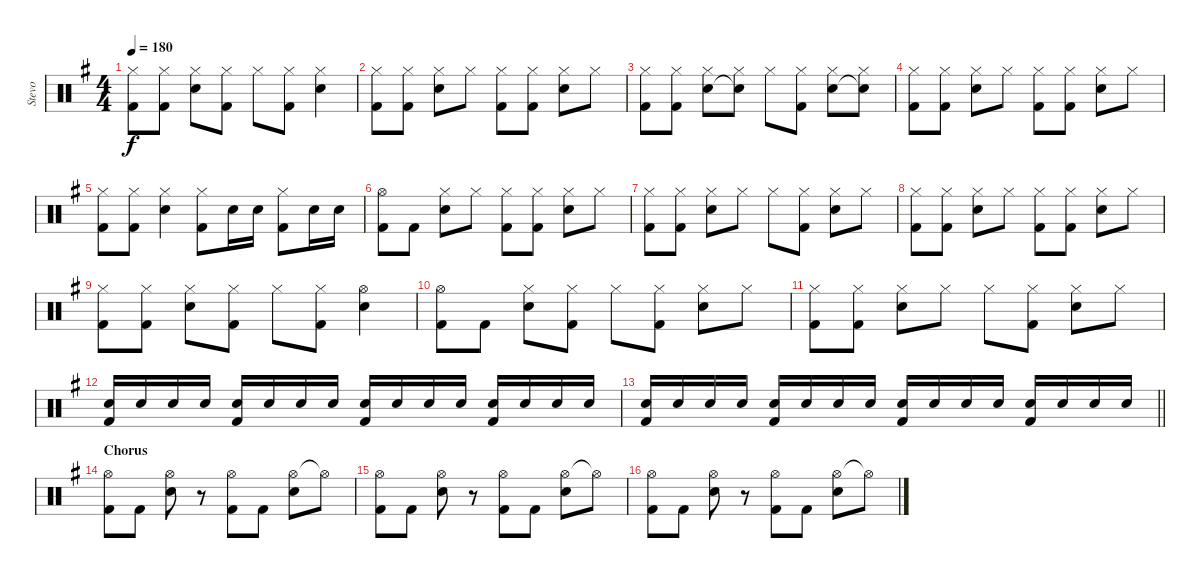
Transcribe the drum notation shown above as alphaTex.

\track ("Stevo" "Stevo") {instrument percussion}
\staff {score}
\articulation defaults
\ts (4 4)
\tempo 180
\clef neutral
\ks g
("Hi-Hat (closed)" "Kick (hit) 2").8{dy f} ("Hi-Hat (closed)" "Kick (hit) 2").8 ("Hi-Hat (closed)" "Snare (hit) 2").8 ("Hi-Hat (closed)" "Kick (hit) 2").8 "Hi-Hat (closed)".8 ("Hi-Hat (closed)" "Kick (hit) 2").8 ("Hi-Hat (closed)" "Snare (hit) 2").4 |
("Hi-Hat (closed)" "Kick (hit) 2").8 ("Hi-Hat (closed)" "Kick (hit) 2").8 ("Hi-Hat (closed)" "Snare (hit) 2").8 "Hi-Hat (closed)".8 ("Hi-Hat (closed)" "Kick (hit) 2").8 ("Hi-Hat (closed)" "Kick (hit) 2").8 ("Hi-Hat (closed)" "Snare (hit) 2").8 "Hi-Hat (closed)".8 |
("Hi-Hat (closed)" "Kick (hit) 2").8 ("Hi-Hat (closed)" "Kick (hit) 2").8 ("Hi-Hat (closed)" "Snare (hit) 2").8 ("Hi-Hat (closed)" "Snare (hit) 2"{t}).8 "Hi-Hat (closed)".8 ("Hi-Hat (closed)" "Kick (hit) 2").8 ("Hi-Hat (closed)" "Snare (hit) 2").8 ("Hi-Hat (closed)" "Snare (hit) 2"{t}).8 |
("Hi-Hat (closed)" "Kick (hit) 2").8 ("Hi-Hat (closed)" "Kick (hit) 2").8 ("Hi-Hat (closed)" "Snare (hit) 2").8 "Hi-Hat (closed)".8 ("Hi-Hat (closed)" "Kick (hit) 2").8 ("Hi-Hat (closed)" "Kick (hit) 2").8 ("Hi-Hat (closed)" "Snare (hit) 2").8 "Hi-Hat (closed)".8 |
("Hi-Hat (closed)" "Kick (hit) 2").8 ("Hi-Hat (closed)" "Kick (hit) 2").8 ("Hi-Hat (closed)" "Snare (hit) 2").4 ("Hi-Hat (closed)" "Kick (hit) 2").8 "Snare (hit) 2".16 "Snare (hit) 2".16 ("Hi-Hat (closed)" "Kick (hit) 2").8 "Snare (hit) 2".16 "Snare (hit) 2".16 |
("Hi-Hat (open)" "Kick (hit) 2").8 "Kick (hit) 2".8 ("Hi-Hat (closed)" "Snare (hit) 2").8 "Hi-Hat (closed)".8 ("Hi-Hat (closed)" "Kick (hit) 2").8 ("Hi-Hat (closed)" "Kick (hit) 2").8 ("Hi-Hat (closed)" "Snare (hit) 2").8 "Hi-Hat (closed)".8 |
("Hi-Hat (closed)" "Kick (hit) 2").8 ("Hi-Hat (closed)" "Kick (hit) 2").8 ("Hi-Hat (closed)" "Snare (hit) 2").8 "Hi-Hat (closed)".8 "Hi-Hat (closed)".8 ("Hi-Hat (closed)" "Kick (hit) 2").8 ("Hi-Hat (closed)" "Snare (hit) 2").8 "Hi-Hat (closed)".8 |
("Hi-Hat (closed)" "Kick (hit) 2").8 ("Hi-Hat (closed)" "Kick (hit) 2").8 ("Hi-Hat (closed)" "Snare (hit) 2").8 "Hi-Hat (closed)".8 ("Hi-Hat (closed)" "Kick (hit) 2").8 ("Hi-Hat (closed)" "Kick (hit) 2").8 ("Hi-Hat (closed)" "Snare (hit) 2").8 "Hi-Hat (closed)".8 |
("Hi-Hat (closed)" "Kick (hit) 2").8 ("Hi-Hat (closed)" "Kick (hit) 2").8 ("Hi-Hat (closed)" "Snare (hit) 2").8 ("Hi-Hat (closed)" "Kick (hit) 2").8 "Hi-Hat (closed)".8 ("Hi-Hat (closed)" "Kick (hit) 2").8 ("Hi-Hat (open)" "Snare (hit) 2").4 |
("Hi-Hat (open)" "Kick (hit) 2").8 "Kick (hit) 2".8 ("Hi-Hat (closed)" "Snare (hit) 2").8 ("Hi-Hat (closed)" "Kick (hit) 2").8 "Hi-Hat (closed)".8 ("Hi-Hat (closed)" "Kick (hit) 2").8 ("Hi-Hat (closed)" "Snare (hit) 2").8 "Hi-Hat (closed)".8 |
("Hi-Hat (closed)" "Kick (hit) 2").8 ("Hi-Hat (closed)" "Kick (hit) 2").8 ("Hi-Hat (closed)" "Snare (hit) 2").8 "Hi-Hat (closed)".8 "Hi-Hat (closed)".8 ("Hi-Hat (closed)" "Kick (hit) 2").8 ("Hi-Hat (closed)" "Snare (hit) 2").8 "Hi-Hat (closed)".8 |
("Snare (hit) 2" "Kick (hit) 2").16 "Snare (hit) 2".16 "Snare (hit) 2".16 "Snare (hit) 2".16 ("Snare (hit) 2" "Kick (hit) 2").16 "Snare (hit) 2".16 "Snare (hit) 2".16 "Snare (hit) 2".16 ("Snare (hit) 2" "Kick (hit) 2").16 "Snare (hit) 2".16 "Snare (hit) 2".16 "Snare (hit) 2".16 ("Snare (hit) 2" "Kick (hit) 2").16 "Snare (hit) 2".16 "Snare (hit) 2".16 "Snare (hit) 2".16 |
\barLineRight lightlight
("Snare (hit) 2" "Kick (hit) 2").16 "Snare (hit) 2".16 "Snare (hit) 2".16 "Snare (hit) 2".16 ("Snare (hit) 2" "Kick (hit) 2").16 "Snare (hit) 2".16 "Snare (hit) 2".16 "Snare (hit) 2".16 ("Snare (hit) 2" "Kick (hit) 2").16 "Snare (hit) 2".16 "Snare (hit) 2".16 "Snare (hit) 2".16 ("Snare (hit) 2" "Kick (hit) 2").16 "Snare (hit) 2".16 "Snare (hit) 2".16 "Snare (hit) 2".16 |
\section ("" "Chorus")
("Hi-Hat (open)" "Kick (hit) 2").8 "Kick (hit) 2".8 ("Hi-Hat (open)" "Snare (hit) 2").8 r.8 ("Hi-Hat (open)" "Kick (hit) 2").8 "Kick (hit) 2".8 ("Hi-Hat (open)" "Snare (hit) 2").8 "Hi-Hat (open)"{t}.8 |
("Hi-Hat (open)" "Kick (hit) 2").8 "Kick (hit) 2".8 ("Hi-Hat (open)" "Snare (hit) 2").8 r.8 ("Hi-Hat (open)" "Kick (hit) 2").8 "Kick (hit) 2".8 ("Hi-Hat (open)" "Snare (hit) 2").8 "Hi-Hat (open)"{t}.8 |
("Hi-Hat (open)" "Kick (hit) 2").8 "Kick (hit) 2".8 ("Hi-Hat (open)" "Snare (hit) 2").8 r.8 ("Hi-Hat (open)" "Kick (hit) 2").8 "Kick (hit) 2".8 ("Hi-Hat (open)" "Snare (hit) 2").8 "Hi-Hat (open)"{t}.8
